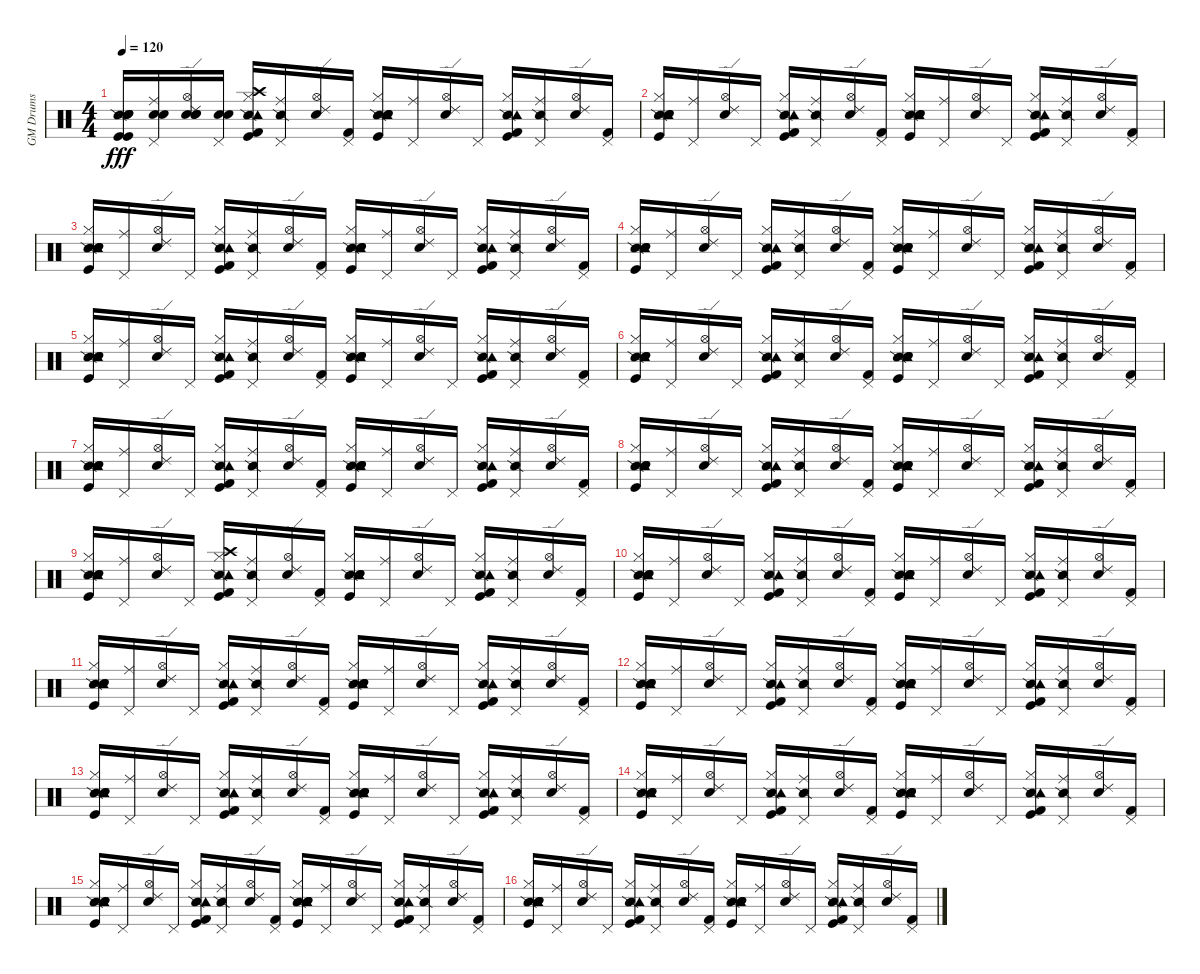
\track ("GM Drums" "GM Drums") {instrument percussion}
\staff {score}
\articulation defaults
\ts (4 4)
\tempo 120
\clef neutral
\ks c
("Snare (side stick) 2" "Kick (hit)" "Kick (hit)" "Snare (hit) 2" "Hand Clap (hit)" "Electric Snare (hit)").16{dy fff} ("Snare (hit) 2" "Electric Snare (hit)" "Pedal Hi-Hat (hit)" "Ride (middle)").16 ("Metronome (bell)" "Snare (hit) 2" "Electric Snare (hit)" "Hi-Hat (open)" "Ride (edge) 2").16 ("Snare (hit) 2" "Electric Snare (hit)" "Pedal Hi-Hat (hit)").16 ("Snare (side stick) 2" "Kick (hit)" "Kick (hit) 2" "Hi-Hat (closed)" "Crash high (hit)" "Tambourine (hit)").16 ("Snare (side stick) 2" "Pedal Hi-Hat (hit)" "Ride (middle)").16 ("Metronome (bell)" "Hi-Hat (open)" "Ride (edge) 2").16 ("Kick (hit) 2" "Pedal Hi-Hat (hit)").16 ("Snare (side stick) 2" "Kick (hit)" "Snare (hit) 2" "Hand Clap (hit)" "Hi-Hat (closed)" "Tambourine (hit)").16 ("Pedal Hi-Hat (hit)" "Ride (middle)").16 ("Metronome (bell)" "Hi-Hat (open)" "Ride (edge) 2").16 "Pedal Hi-Hat (hit)".16 ("Snare (side stick) 2" "Kick (hit)" "Kick (hit) 2" "Hi-Hat (closed)" "Tambourine (hit)").16 ("Snare (side stick) 2" "Pedal Hi-Hat (hit)" "Ride (middle)").16 ("Metronome (bell)" "Hi-Hat (open)" "Ride (edge) 2").16 ("Kick (hit) 2" "Pedal Hi-Hat (hit)").16 |
("Snare (side stick) 2" "Kick (hit)" "Snare (hit) 2" "Hand Clap (hit)" "Hi-Hat (closed)" "Tambourine (hit)").16 ("Pedal Hi-Hat (hit)" "Ride (middle)").16 ("Metronome (bell)" "Hi-Hat (open)" "Ride (edge) 2").16 "Pedal Hi-Hat (hit)".16 ("Snare (side stick) 2" "Kick (hit)" "Kick (hit) 2" "Hi-Hat (closed)" "Tambourine (hit)").16 ("Snare (side stick) 2" "Pedal Hi-Hat (hit)" "Ride (middle)").16 ("Metronome (bell)" "Hi-Hat (open)" "Ride (edge) 2").16 ("Kick (hit) 2" "Pedal Hi-Hat (hit)").16 ("Snare (side stick) 2" "Kick (hit)" "Snare (hit) 2" "Hand Clap (hit)" "Hi-Hat (closed)" "Tambourine (hit)").16 ("Pedal Hi-Hat (hit)" "Ride (middle)").16 ("Metronome (bell)" "Hi-Hat (open)" "Ride (edge) 2").16 "Pedal Hi-Hat (hit)".16 ("Snare (side stick) 2" "Kick (hit)" "Kick (hit) 2" "Hi-Hat (closed)" "Tambourine (hit)").16 ("Snare (side stick) 2" "Pedal Hi-Hat (hit)" "Ride (middle)").16 ("Metronome (bell)" "Hi-Hat (open)" "Ride (edge) 2").16 ("Kick (hit) 2" "Pedal Hi-Hat (hit)").16 |
("Snare (side stick) 2" "Kick (hit)" "Snare (hit) 2" "Hand Clap (hit)" "Hi-Hat (closed)" "Tambourine (hit)").16 ("Pedal Hi-Hat (hit)" "Ride (middle)").16 ("Metronome (bell)" "Hi-Hat (open)" "Ride (edge) 2").16 "Pedal Hi-Hat (hit)".16 ("Snare (side stick) 2" "Kick (hit)" "Kick (hit) 2" "Hi-Hat (closed)" "Tambourine (hit)").16 ("Snare (side stick) 2" "Pedal Hi-Hat (hit)" "Ride (middle)").16 ("Metronome (bell)" "Hi-Hat (open)" "Ride (edge) 2").16 ("Kick (hit) 2" "Pedal Hi-Hat (hit)").16 ("Snare (side stick) 2" "Kick (hit)" "Snare (hit) 2" "Hand Clap (hit)" "Hi-Hat (closed)" "Tambourine (hit)").16 ("Pedal Hi-Hat (hit)" "Ride (middle)").16 ("Metronome (bell)" "Hi-Hat (open)" "Ride (edge) 2").16 "Pedal Hi-Hat (hit)".16 ("Snare (side stick) 2" "Kick (hit)" "Kick (hit) 2" "Hi-Hat (closed)" "Tambourine (hit)").16 ("Snare (side stick) 2" "Pedal Hi-Hat (hit)" "Ride (middle)").16 ("Metronome (bell)" "Hi-Hat (open)" "Ride (edge) 2").16 ("Kick (hit) 2" "Pedal Hi-Hat (hit)").16 |
("Snare (side stick) 2" "Kick (hit)" "Snare (hit) 2" "Hand Clap (hit)" "Hi-Hat (closed)" "Tambourine (hit)").16 ("Pedal Hi-Hat (hit)" "Ride (middle)").16 ("Metronome (bell)" "Hi-Hat (open)" "Ride (edge) 2").16 "Pedal Hi-Hat (hit)".16 ("Snare (side stick) 2" "Kick (hit)" "Kick (hit) 2" "Hi-Hat (closed)" "Tambourine (hit)").16 ("Snare (side stick) 2" "Pedal Hi-Hat (hit)" "Ride (middle)").16 ("Metronome (bell)" "Hi-Hat (open)" "Ride (edge) 2").16 ("Kick (hit) 2" "Pedal Hi-Hat (hit)").16 ("Snare (side stick) 2" "Kick (hit)" "Snare (hit) 2" "Hand Clap (hit)" "Hi-Hat (closed)" "Tambourine (hit)").16 ("Pedal Hi-Hat (hit)" "Ride (middle)").16 ("Metronome (bell)" "Hi-Hat (open)" "Ride (edge) 2").16 "Pedal Hi-Hat (hit)".16 ("Snare (side stick) 2" "Kick (hit)" "Kick (hit) 2" "Hi-Hat (closed)" "Tambourine (hit)").16 ("Snare (side stick) 2" "Pedal Hi-Hat (hit)" "Ride (middle)").16 ("Metronome (bell)" "Hi-Hat (open)" "Ride (edge) 2").16 ("Kick (hit) 2" "Pedal Hi-Hat (hit)").16 |
("Snare (side stick) 2" "Kick (hit)" "Snare (hit) 2" "Hand Clap (hit)" "Hi-Hat (closed)" "Tambourine (hit)").16 ("Pedal Hi-Hat (hit)" "Ride (middle)").16 ("Metronome (bell)" "Hi-Hat (open)" "Ride (edge) 2").16 "Pedal Hi-Hat (hit)".16 ("Snare (side stick) 2" "Kick (hit)" "Kick (hit) 2" "Hi-Hat (closed)" "Tambourine (hit)").16 ("Snare (side stick) 2" "Pedal Hi-Hat (hit)" "Ride (middle)").16 ("Metronome (bell)" "Hi-Hat (open)" "Ride (edge) 2").16 ("Kick (hit) 2" "Pedal Hi-Hat (hit)").16 ("Snare (side stick) 2" "Kick (hit)" "Snare (hit) 2" "Hand Clap (hit)" "Hi-Hat (closed)" "Tambourine (hit)").16 ("Pedal Hi-Hat (hit)" "Ride (middle)").16 ("Metronome (bell)" "Hi-Hat (open)" "Ride (edge) 2").16 "Pedal Hi-Hat (hit)".16 ("Snare (side stick) 2" "Kick (hit)" "Kick (hit) 2" "Hi-Hat (closed)" "Tambourine (hit)").16 ("Snare (side stick) 2" "Pedal Hi-Hat (hit)" "Ride (middle)").16 ("Metronome (bell)" "Hi-Hat (open)" "Ride (edge) 2").16 ("Kick (hit) 2" "Pedal Hi-Hat (hit)").16 |
("Snare (side stick) 2" "Kick (hit)" "Snare (hit) 2" "Hand Clap (hit)" "Hi-Hat (closed)" "Tambourine (hit)").16 ("Pedal Hi-Hat (hit)" "Ride (middle)").16 ("Metronome (bell)" "Hi-Hat (open)" "Ride (edge) 2").16 "Pedal Hi-Hat (hit)".16 ("Snare (side stick) 2" "Kick (hit)" "Kick (hit) 2" "Hi-Hat (closed)" "Tambourine (hit)").16 ("Snare (side stick) 2" "Pedal Hi-Hat (hit)" "Ride (middle)").16 ("Metronome (bell)" "Hi-Hat (open)" "Ride (edge) 2").16 ("Kick (hit) 2" "Pedal Hi-Hat (hit)").16 ("Snare (side stick) 2" "Kick (hit)" "Snare (hit) 2" "Hand Clap (hit)" "Hi-Hat (closed)" "Tambourine (hit)").16 ("Pedal Hi-Hat (hit)" "Ride (middle)").16 ("Metronome (bell)" "Hi-Hat (open)" "Ride (edge) 2").16 "Pedal Hi-Hat (hit)".16 ("Snare (side stick) 2" "Kick (hit)" "Kick (hit) 2" "Hi-Hat (closed)" "Tambourine (hit)").16 ("Snare (side stick) 2" "Pedal Hi-Hat (hit)" "Ride (middle)").16 ("Metronome (bell)" "Hi-Hat (open)" "Ride (edge) 2").16 ("Kick (hit) 2" "Pedal Hi-Hat (hit)").16 |
("Snare (side stick) 2" "Kick (hit)" "Snare (hit) 2" "Hand Clap (hit)" "Hi-Hat (closed)" "Tambourine (hit)").16 ("Pedal Hi-Hat (hit)" "Ride (middle)").16 ("Metronome (bell)" "Hi-Hat (open)" "Ride (edge) 2").16 "Pedal Hi-Hat (hit)".16 ("Snare (side stick) 2" "Kick (hit)" "Kick (hit) 2" "Hi-Hat (closed)" "Tambourine (hit)").16 ("Snare (side stick) 2" "Pedal Hi-Hat (hit)" "Ride (middle)").16 ("Metronome (bell)" "Hi-Hat (open)" "Ride (edge) 2").16 ("Kick (hit) 2" "Pedal Hi-Hat (hit)").16 ("Snare (side stick) 2" "Kick (hit)" "Snare (hit) 2" "Hand Clap (hit)" "Hi-Hat (closed)" "Tambourine (hit)").16 ("Pedal Hi-Hat (hit)" "Ride (middle)").16 ("Metronome (bell)" "Hi-Hat (open)" "Ride (edge) 2").16 "Pedal Hi-Hat (hit)".16 ("Snare (side stick) 2" "Kick (hit)" "Kick (hit) 2" "Hi-Hat (closed)" "Tambourine (hit)").16 ("Snare (side stick) 2" "Pedal Hi-Hat (hit)" "Ride (middle)").16 ("Metronome (bell)" "Hi-Hat (open)" "Ride (edge) 2").16 ("Kick (hit) 2" "Pedal Hi-Hat (hit)").16 |
("Snare (side stick) 2" "Kick (hit)" "Snare (hit) 2" "Hand Clap (hit)" "Hi-Hat (closed)" "Tambourine (hit)").16 ("Pedal Hi-Hat (hit)" "Ride (middle)").16 ("Metronome (bell)" "Hi-Hat (open)" "Ride (edge) 2").16 "Pedal Hi-Hat (hit)".16 ("Snare (side stick) 2" "Kick (hit)" "Kick (hit) 2" "Hi-Hat (closed)" "Tambourine (hit)").16 ("Snare (side stick) 2" "Pedal Hi-Hat (hit)" "Ride (middle)").16 ("Metronome (bell)" "Hi-Hat (open)" "Ride (edge) 2").16 ("Kick (hit) 2" "Pedal Hi-Hat (hit)").16 ("Snare (side stick) 2" "Kick (hit)" "Snare (hit) 2" "Hand Clap (hit)" "Hi-Hat (closed)" "Tambourine (hit)").16 ("Pedal Hi-Hat (hit)" "Ride (middle)").16 ("Metronome (bell)" "Hi-Hat (open)" "Ride (edge) 2").16 "Pedal Hi-Hat (hit)".16 ("Snare (side stick) 2" "Kick (hit)" "Kick (hit) 2" "Hi-Hat (closed)" "Tambourine (hit)").16 ("Snare (side stick) 2" "Pedal Hi-Hat (hit)" "Ride (middle)").16 ("Metronome (bell)" "Hi-Hat (open)" "Ride (edge) 2").16 ("Kick (hit) 2" "Pedal Hi-Hat (hit)").16 |
("Snare (side stick) 2" "Kick (hit)" "Snare (hit) 2" "Hand Clap (hit)" "Hi-Hat (closed)" "Tambourine (hit)").16 ("Pedal Hi-Hat (hit)" "Ride (middle)").16 ("Metronome (bell)" "Hi-Hat (open)" "Ride (edge) 2").16 "Pedal Hi-Hat (hit)".16 ("Snare (side stick) 2" "Kick (hit)" "Kick (hit) 2" "Hi-Hat (closed)" "Crash high (hit)" "Tambourine (hit)").16 ("Snare (side stick) 2" "Pedal Hi-Hat (hit)" "Ride (middle)").16 ("Metronome (bell)" "Hi-Hat (open)" "Ride (edge) 2").16 ("Kick (hit) 2" "Pedal Hi-Hat (hit)").16 ("Snare (side stick) 2" "Kick (hit)" "Snare (hit) 2" "Hand Clap (hit)" "Hi-Hat (closed)" "Tambourine (hit)").16 ("Pedal Hi-Hat (hit)" "Ride (middle)").16 ("Metronome (bell)" "Hi-Hat (open)" "Ride (edge) 2").16 "Pedal Hi-Hat (hit)".16 ("Snare (side stick) 2" "Kick (hit)" "Kick (hit) 2" "Hi-Hat (closed)" "Tambourine (hit)").16 ("Snare (side stick) 2" "Pedal Hi-Hat (hit)" "Ride (middle)").16 ("Metronome (bell)" "Hi-Hat (open)" "Ride (edge) 2").16 ("Kick (hit) 2" "Pedal Hi-Hat (hit)").16 |
("Snare (side stick) 2" "Kick (hit)" "Snare (hit) 2" "Hand Clap (hit)" "Hi-Hat (closed)" "Tambourine (hit)").16 ("Pedal Hi-Hat (hit)" "Ride (middle)").16 ("Metronome (bell)" "Hi-Hat (open)" "Ride (edge) 2").16 "Pedal Hi-Hat (hit)".16 ("Snare (side stick) 2" "Kick (hit)" "Kick (hit) 2" "Hi-Hat (closed)" "Tambourine (hit)").16 ("Snare (side stick) 2" "Pedal Hi-Hat (hit)" "Ride (middle)").16 ("Metronome (bell)" "Hi-Hat (open)" "Ride (edge) 2").16 ("Kick (hit) 2" "Pedal Hi-Hat (hit)").16 ("Snare (side stick) 2" "Kick (hit)" "Snare (hit) 2" "Hand Clap (hit)" "Hi-Hat (closed)" "Tambourine (hit)").16 ("Pedal Hi-Hat (hit)" "Ride (middle)").16 ("Metronome (bell)" "Hi-Hat (open)" "Ride (edge) 2").16 "Pedal Hi-Hat (hit)".16 ("Snare (side stick) 2" "Kick (hit)" "Kick (hit) 2" "Hi-Hat (closed)" "Tambourine (hit)").16 ("Snare (side stick) 2" "Pedal Hi-Hat (hit)" "Ride (middle)").16 ("Metronome (bell)" "Hi-Hat (open)" "Ride (edge) 2").16 ("Kick (hit) 2" "Pedal Hi-Hat (hit)").16 |
("Snare (side stick) 2" "Kick (hit)" "Snare (hit) 2" "Hand Clap (hit)" "Hi-Hat (closed)" "Tambourine (hit)").16 ("Pedal Hi-Hat (hit)" "Ride (middle)").16 ("Metronome (bell)" "Hi-Hat (open)" "Ride (edge) 2").16 "Pedal Hi-Hat (hit)".16 ("Snare (side stick) 2" "Kick (hit)" "Kick (hit) 2" "Hi-Hat (closed)" "Tambourine (hit)").16 ("Snare (side stick) 2" "Pedal Hi-Hat (hit)" "Ride (middle)").16 ("Metronome (bell)" "Hi-Hat (open)" "Ride (edge) 2").16 ("Kick (hit) 2" "Pedal Hi-Hat (hit)").16 ("Snare (side stick) 2" "Kick (hit)" "Snare (hit) 2" "Hand Clap (hit)" "Hi-Hat (closed)" "Tambourine (hit)").16 ("Pedal Hi-Hat (hit)" "Ride (middle)").16 ("Metronome (bell)" "Hi-Hat (open)" "Ride (edge) 2").16 "Pedal Hi-Hat (hit)".16 ("Snare (side stick) 2" "Kick (hit)" "Kick (hit) 2" "Hi-Hat (closed)" "Tambourine (hit)").16 ("Snare (side stick) 2" "Pedal Hi-Hat (hit)" "Ride (middle)").16 ("Metronome (bell)" "Hi-Hat (open)" "Ride (edge) 2").16 ("Kick (hit) 2" "Pedal Hi-Hat (hit)").16 |
("Snare (side stick) 2" "Kick (hit)" "Snare (hit) 2" "Hand Clap (hit)" "Hi-Hat (closed)" "Tambourine (hit)").16 ("Pedal Hi-Hat (hit)" "Ride (middle)").16 ("Metronome (bell)" "Hi-Hat (open)" "Ride (edge) 2").16 "Pedal Hi-Hat (hit)".16 ("Snare (side stick) 2" "Kick (hit)" "Kick (hit) 2" "Hi-Hat (closed)" "Tambourine (hit)").16 ("Snare (side stick) 2" "Pedal Hi-Hat (hit)" "Ride (middle)").16 ("Metronome (bell)" "Hi-Hat (open)" "Ride (edge) 2").16 ("Kick (hit) 2" "Pedal Hi-Hat (hit)").16 ("Snare (side stick) 2" "Kick (hit)" "Snare (hit) 2" "Hand Clap (hit)" "Hi-Hat (closed)" "Tambourine (hit)").16 ("Pedal Hi-Hat (hit)" "Ride (middle)").16 ("Metronome (bell)" "Hi-Hat (open)" "Ride (edge) 2").16 "Pedal Hi-Hat (hit)".16 ("Snare (side stick) 2" "Kick (hit)" "Kick (hit) 2" "Hi-Hat (closed)" "Tambourine (hit)").16 ("Snare (side stick) 2" "Pedal Hi-Hat (hit)" "Ride (middle)").16 ("Metronome (bell)" "Hi-Hat (open)" "Ride (edge) 2").16 ("Kick (hit) 2" "Pedal Hi-Hat (hit)").16 |
("Snare (side stick) 2" "Kick (hit)" "Snare (hit) 2" "Hand Clap (hit)" "Hi-Hat (closed)" "Tambourine (hit)").16 ("Pedal Hi-Hat (hit)" "Ride (middle)").16 ("Metronome (bell)" "Hi-Hat (open)" "Ride (edge) 2").16 "Pedal Hi-Hat (hit)".16 ("Snare (side stick) 2" "Kick (hit)" "Kick (hit) 2" "Hi-Hat (closed)" "Tambourine (hit)").16 ("Snare (side stick) 2" "Pedal Hi-Hat (hit)" "Ride (middle)").16 ("Metronome (bell)" "Hi-Hat (open)" "Ride (edge) 2").16 ("Kick (hit) 2" "Pedal Hi-Hat (hit)").16 ("Snare (side stick) 2" "Kick (hit)" "Snare (hit) 2" "Hand Clap (hit)" "Hi-Hat (closed)" "Tambourine (hit)").16 ("Pedal Hi-Hat (hit)" "Ride (middle)").16 ("Metronome (bell)" "Hi-Hat (open)" "Ride (edge) 2").16 "Pedal Hi-Hat (hit)".16 ("Snare (side stick) 2" "Kick (hit)" "Kick (hit) 2" "Hi-Hat (closed)" "Tambourine (hit)").16 ("Snare (side stick) 2" "Pedal Hi-Hat (hit)" "Ride (middle)").16 ("Metronome (bell)" "Hi-Hat (open)" "Ride (edge) 2").16 ("Kick (hit) 2" "Pedal Hi-Hat (hit)").16 |
("Snare (side stick) 2" "Kick (hit)" "Snare (hit) 2" "Hand Clap (hit)" "Hi-Hat (closed)" "Tambourine (hit)").16 ("Pedal Hi-Hat (hit)" "Ride (middle)").16 ("Metronome (bell)" "Hi-Hat (open)" "Ride (edge) 2").16 "Pedal Hi-Hat (hit)".16 ("Snare (side stick) 2" "Kick (hit)" "Kick (hit) 2" "Hi-Hat (closed)" "Tambourine (hit)").16 ("Snare (side stick) 2" "Pedal Hi-Hat (hit)" "Ride (middle)").16 ("Metronome (bell)" "Hi-Hat (open)" "Ride (edge) 2").16 ("Kick (hit) 2" "Pedal Hi-Hat (hit)").16 ("Snare (side stick) 2" "Kick (hit)" "Snare (hit) 2" "Hand Clap (hit)" "Hi-Hat (closed)" "Tambourine (hit)").16 ("Pedal Hi-Hat (hit)" "Ride (middle)").16 ("Metronome (bell)" "Hi-Hat (open)" "Ride (edge) 2").16 "Pedal Hi-Hat (hit)".16 ("Snare (side stick) 2" "Kick (hit)" "Kick (hit) 2" "Hi-Hat (closed)" "Tambourine (hit)").16 ("Snare (side stick) 2" "Pedal Hi-Hat (hit)" "Ride (middle)").16 ("Metronome (bell)" "Hi-Hat (open)" "Ride (edge) 2").16 ("Kick (hit) 2" "Pedal Hi-Hat (hit)").16 |
("Snare (side stick) 2" "Kick (hit)" "Snare (hit) 2" "Hand Clap (hit)" "Hi-Hat (closed)" "Tambourine (hit)").16 ("Pedal Hi-Hat (hit)" "Ride (middle)").16 ("Metronome (bell)" "Hi-Hat (open)" "Ride (edge) 2").16 "Pedal Hi-Hat (hit)".16 ("Snare (side stick) 2" "Kick (hit)" "Kick (hit) 2" "Hi-Hat (closed)" "Tambourine (hit)").16 ("Snare (side stick) 2" "Pedal Hi-Hat (hit)" "Ride (middle)").16 ("Metronome (bell)" "Hi-Hat (open)" "Ride (edge) 2").16 ("Kick (hit) 2" "Pedal Hi-Hat (hit)").16 ("Snare (side stick) 2" "Kick (hit)" "Snare (hit) 2" "Hand Clap (hit)" "Hi-Hat (closed)" "Tambourine (hit)").16 ("Pedal Hi-Hat (hit)" "Ride (middle)").16 ("Metronome (bell)" "Hi-Hat (open)" "Ride (edge) 2").16 "Pedal Hi-Hat (hit)".16 ("Snare (side stick) 2" "Kick (hit)" "Kick (hit) 2" "Hi-Hat (closed)" "Tambourine (hit)").16 ("Snare (side stick) 2" "Pedal Hi-Hat (hit)" "Ride (middle)").16 ("Metronome (bell)" "Hi-Hat (open)" "Ride (edge) 2").16 ("Kick (hit) 2" "Pedal Hi-Hat (hit)").16 |
("Snare (side stick) 2" "Kick (hit)" "Snare (hit) 2" "Hand Clap (hit)" "Hi-Hat (closed)" "Tambourine (hit)").16 ("Pedal Hi-Hat (hit)" "Ride (middle)").16 ("Metronome (bell)" "Hi-Hat (open)" "Ride (edge) 2").16 "Pedal Hi-Hat (hit)".16 ("Snare (side stick) 2" "Kick (hit)" "Kick (hit) 2" "Hi-Hat (closed)" "Tambourine (hit)").16 ("Snare (side stick) 2" "Pedal Hi-Hat (hit)" "Ride (middle)").16 ("Metronome (bell)" "Hi-Hat (open)" "Ride (edge) 2").16 ("Kick (hit) 2" "Pedal Hi-Hat (hit)").16 ("Snare (side stick) 2" "Kick (hit)" "Snare (hit) 2" "Hand Clap (hit)" "Hi-Hat (closed)" "Tambourine (hit)").16 ("Pedal Hi-Hat (hit)" "Ride (middle)").16 ("Metronome (bell)" "Hi-Hat (open)" "Ride (edge) 2").16 "Pedal Hi-Hat (hit)".16 ("Snare (side stick) 2" "Kick (hit)" "Kick (hit) 2" "Hi-Hat (closed)" "Tambourine (hit)").16 ("Snare (side stick) 2" "Pedal Hi-Hat (hit)" "Ride (middle)").16 ("Metronome (bell)" "Hi-Hat (open)" "Ride (edge) 2").16 ("Kick (hit) 2" "Pedal Hi-Hat (hit)").16
